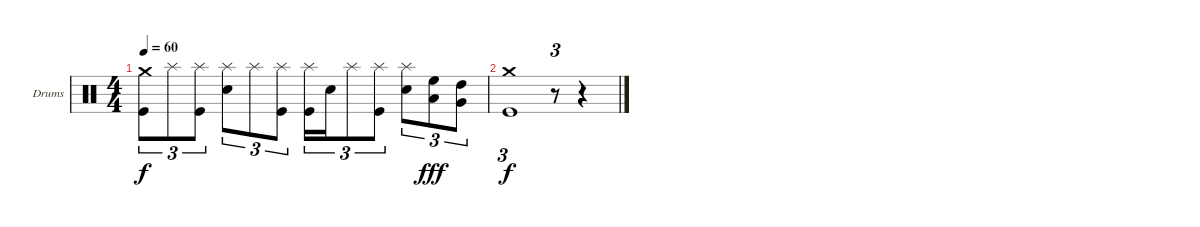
\bracketExtendMode groupsimilarinstruments
\firstSystemTrackNameOrientation horizontal
\otherSystemsTrackNameOrientation horizontal
\track ("Drumkit" "Drums") {instrument percussion}
\staff {score}
\articulation defaults
\ts (4 4)
\tempo 60
\clef neutral
\ks c
("Crash medium (hit)" "Kick (hit)").8{tu (3 2) dy f} "Splash (hit)".8{tu (3 2)} ("Splash (hit)" "Kick (hit)").8{tu (3 2)} ("Splash (hit)" "Snare (hit) 2").8{tu (3 2)} "Splash (hit)".8{tu (3 2)} ("Splash (hit)" "Kick (hit)").8{tu (3 2)} ("Splash (hit)" "Kick (hit)").16{tu (3 2)} "Snare (hit) 2".16{tu (3 2)} "Splash (hit)".8{tu (3 2)} ("Splash (hit)" "Kick (hit)").8{tu (3 2)} ("Splash (hit)" "Snare (hit) 2").8{tu (3 2)} ("High Floor Tom (hit)" "Low Tom (hit)").8{tu (3 2) dy fff} ("High Tom (hit)" "Very Low Tom (hit)").8{tu (3 2)} |
("Crash medium (hit)" "Kick (hit)").1{tu (3 2) dy f} r.8{tu (3 2)} r.4
